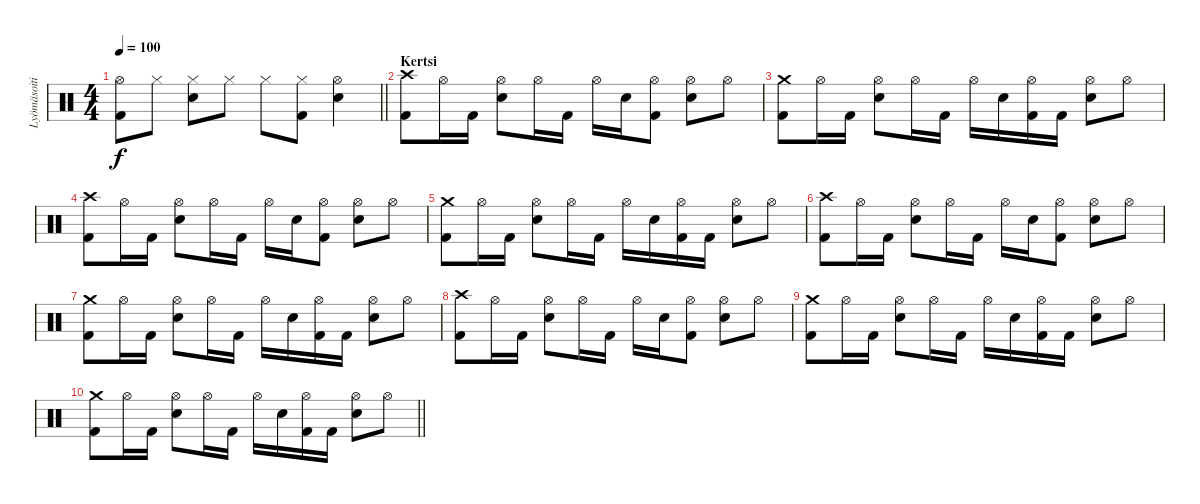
\track ("Lyömäsoitin" "Lyömäsoiti") {instrument percussion}
\staff {score}
\articulation defaults
\ts (4 4)
\tempo 100
\clef neutral
\barLineRight lightlight
\ks c
("Hi-Hat (open)" "Kick (hit) 2").8{dy f} "Hi-Hat (closed)".8 ("Hi-Hat (closed)" "Snare (hit) 2").8 "Hi-Hat (closed)".8 "Hi-Hat (closed)".8 ("Hi-Hat (closed)" "Kick (hit) 2").8 ("Hi-Hat (open)" "Snare (hit) 2").4 |
\section ("" "Kertsi")
("Crash high (hit)" "Kick (hit) 2").8 "Hi-Hat (open)".16 "Kick (hit) 2".16 ("Hi-Hat (open)" "Snare (hit) 2").8 "Hi-Hat (open)".16 "Kick (hit) 2".16 "Hi-Hat (open)".16 "Snare (hit) 2".16 ("Hi-Hat (open)" "Kick (hit) 2").8 ("Hi-Hat (open)" "Snare (hit) 2").8 "Hi-Hat (open)".8 |
("Crash medium (hit)" "Kick (hit) 2").8 "Hi-Hat (open)".16 "Kick (hit) 2".16 ("Hi-Hat (open)" "Snare (hit) 2").8 "Hi-Hat (open)".16 "Kick (hit) 2".16 "Hi-Hat (open)".16 "Snare (hit) 2".16 ("Hi-Hat (open)" "Kick (hit) 2").16 "Kick (hit) 2".16 ("Hi-Hat (open)" "Snare (hit) 2").8 "Hi-Hat (open)".8 |
("Crash high (hit)" "Kick (hit) 2").8 "Hi-Hat (open)".16 "Kick (hit) 2".16 ("Hi-Hat (open)" "Snare (hit) 2").8 "Hi-Hat (open)".16 "Kick (hit) 2".16 "Hi-Hat (open)".16 "Snare (hit) 2".16 ("Hi-Hat (open)" "Kick (hit) 2").8 ("Hi-Hat (open)" "Snare (hit) 2").8 "Hi-Hat (open)".8 |
("Crash medium (hit)" "Kick (hit) 2").8 "Hi-Hat (open)".16 "Kick (hit) 2".16 ("Hi-Hat (open)" "Snare (hit) 2").8 "Hi-Hat (open)".16 "Kick (hit) 2".16 "Hi-Hat (open)".16 "Snare (hit) 2".16 ("Hi-Hat (open)" "Kick (hit) 2").16 "Kick (hit) 2".16 ("Hi-Hat (open)" "Snare (hit) 2").8 "Hi-Hat (open)".8 |
("Crash high (hit)" "Kick (hit) 2").8 "Hi-Hat (open)".16 "Kick (hit) 2".16 ("Hi-Hat (open)" "Snare (hit) 2").8 "Hi-Hat (open)".16 "Kick (hit) 2".16 "Hi-Hat (open)".16 "Snare (hit) 2".16 ("Hi-Hat (open)" "Kick (hit) 2").8 ("Hi-Hat (open)" "Snare (hit) 2").8 "Hi-Hat (open)".8 |
("Crash medium (hit)" "Kick (hit) 2").8 "Hi-Hat (open)".16 "Kick (hit) 2".16 ("Hi-Hat (open)" "Snare (hit) 2").8 "Hi-Hat (open)".16 "Kick (hit) 2".16 "Hi-Hat (open)".16 "Snare (hit) 2".16 ("Hi-Hat (open)" "Kick (hit) 2").16 "Kick (hit) 2".16 ("Hi-Hat (open)" "Snare (hit) 2").8 "Hi-Hat (open)".8 |
("Crash high (hit)" "Kick (hit) 2").8 "Hi-Hat (open)".16 "Kick (hit) 2".16 ("Hi-Hat (open)" "Snare (hit) 2").8 "Hi-Hat (open)".16 "Kick (hit) 2".16 "Hi-Hat (open)".16 "Snare (hit) 2".16 ("Hi-Hat (open)" "Kick (hit) 2").8 ("Hi-Hat (open)" "Snare (hit) 2").8 "Hi-Hat (open)".8 |
("Crash medium (hit)" "Kick (hit) 2").8 "Hi-Hat (open)".16 "Kick (hit) 2".16 ("Hi-Hat (open)" "Snare (hit) 2").8 "Hi-Hat (open)".16 "Kick (hit) 2".16 "Hi-Hat (open)".16 "Snare (hit) 2".16 ("Hi-Hat (open)" "Kick (hit) 2").16 "Kick (hit) 2".16 ("Hi-Hat (open)" "Snare (hit) 2").8 "Hi-Hat (open)".8 |
\barLineRight lightlight
("Crash medium (hit)" "Kick (hit) 2").8 "Hi-Hat (open)".16 "Kick (hit) 2".16 ("Hi-Hat (open)" "Snare (hit) 2").8 "Hi-Hat (open)".16 "Kick (hit) 2".16 "Hi-Hat (open)".16 "Snare (hit) 2".16 ("Hi-Hat (open)" "Kick (hit) 2").16 "Kick (hit) 2".16 ("Hi-Hat (open)" "Snare (hit) 2").8 "Hi-Hat (open)".8
